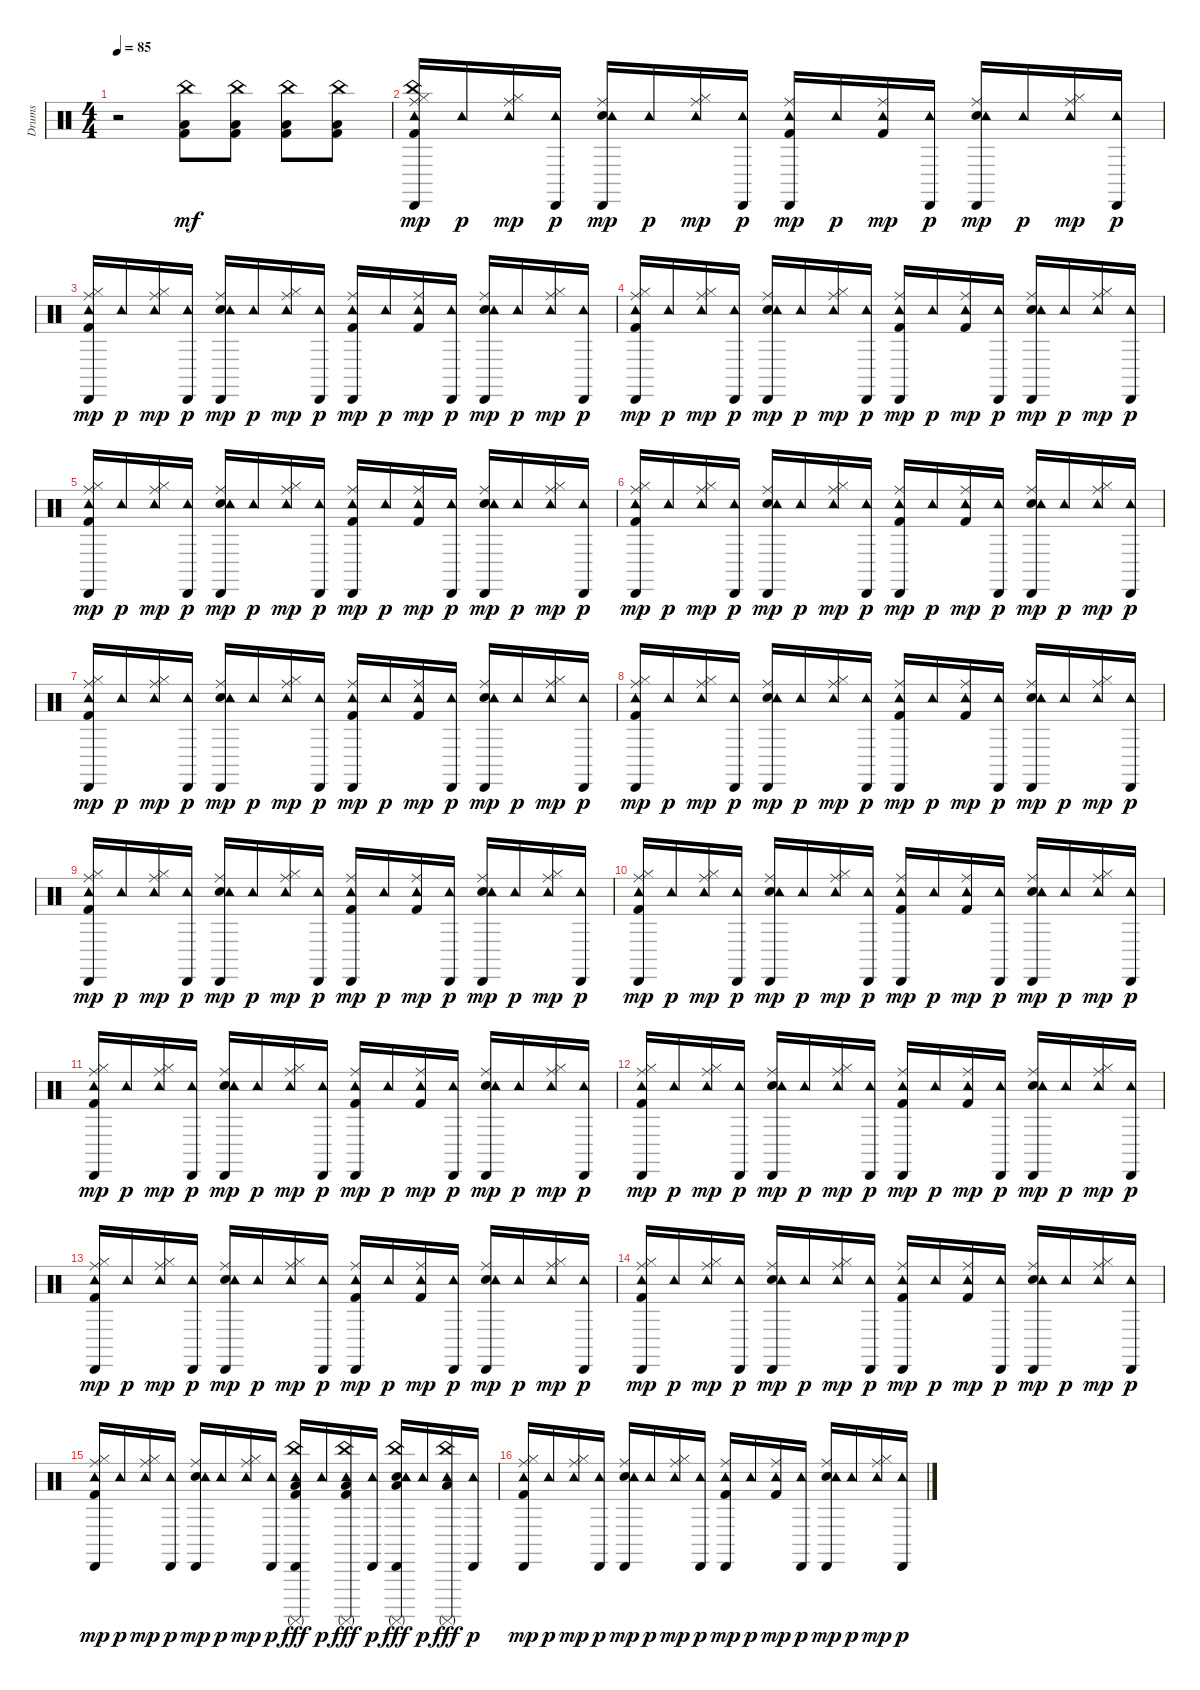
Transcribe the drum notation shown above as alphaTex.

\track ("Drums" "Drums") {instrument percussion}
\staff {score}
\articulation defaults
\ts (4 4)
\tempo 85
\clef neutral
\ks c
r.2{dy mf} ("Kick (hit) 2" "Low Tom (hit)" "China (hit)").8 ("Kick (hit) 2" "Low Tom (hit)" "China (hit)").8 ("Kick (hit) 2" "Low Tom (hit)" "China (hit)").8 ("Kick (hit) 2" "Low Tom (hit)" "China (hit)").8 |
("Kick (hit) 2" "Hi-Hat (closed)" "Ride (middle)" "China (hit)" "Tambourine (hit)" "Cabasa (hit)").16{dy mp} "Tambourine (hit)".16{dy p} ("Hi-Hat (closed)" "Ride (middle)" "Tambourine (hit)").16{dy mp} ("Cabasa (hit)" "Tambourine (hit)").16{dy p} ("Snare (hit) 2" "Ride (middle)" "Tambourine (hit)" "Cabasa (hit)").16{dy mp} "Tambourine (hit)".16{dy p} ("Hi-Hat (closed)" "Ride (middle)" "Tambourine (hit)").16{dy mp} ("Cabasa (hit)" "Tambourine (hit)").16{dy p} ("Kick (hit) 2" "Ride (middle)" "Tambourine (hit)" "Cabasa (hit)").16{dy mp} "Tambourine (hit)".16{dy p} ("Kick (hit) 2" "Ride (middle)" "Tambourine (hit)").16{dy mp} ("Cabasa (hit)" "Tambourine (hit)").16{dy p} ("Snare (hit) 2" "Ride (middle)" "Tambourine (hit)" "Cabasa (hit)").16{dy mp} "Tambourine (hit)".16{dy p} ("Hi-Hat (closed)" "Ride (middle)" "Tambourine (hit)").16{dy mp} ("Cabasa (hit)" "Tambourine (hit)").16{dy p} |
("Kick (hit) 2" "Hi-Hat (closed)" "Ride (middle)" "Tambourine (hit)" "Cabasa (hit)").16{dy mp} "Tambourine (hit)".16{dy p} ("Hi-Hat (closed)" "Ride (middle)" "Tambourine (hit)").16{dy mp} ("Cabasa (hit)" "Tambourine (hit)").16{dy p} ("Snare (hit) 2" "Ride (middle)" "Tambourine (hit)" "Cabasa (hit)").16{dy mp} "Tambourine (hit)".16{dy p} ("Hi-Hat (closed)" "Ride (middle)" "Tambourine (hit)").16{dy mp} ("Cabasa (hit)" "Tambourine (hit)").16{dy p} ("Kick (hit) 2" "Ride (middle)" "Tambourine (hit)" "Cabasa (hit)").16{dy mp} "Tambourine (hit)".16{dy p} ("Kick (hit) 2" "Ride (middle)" "Tambourine (hit)").16{dy mp} ("Cabasa (hit)" "Tambourine (hit)").16{dy p} ("Snare (hit) 2" "Ride (middle)" "Tambourine (hit)" "Cabasa (hit)").16{dy mp} "Tambourine (hit)".16{dy p} ("Hi-Hat (closed)" "Ride (middle)" "Tambourine (hit)").16{dy mp} ("Cabasa (hit)" "Tambourine (hit)").16{dy p} |
("Kick (hit) 2" "Hi-Hat (closed)" "Ride (middle)" "Tambourine (hit)" "Cabasa (hit)").16{dy mp} "Tambourine (hit)".16{dy p} ("Hi-Hat (closed)" "Ride (middle)" "Tambourine (hit)").16{dy mp} ("Cabasa (hit)" "Tambourine (hit)").16{dy p} ("Snare (hit) 2" "Ride (middle)" "Tambourine (hit)" "Cabasa (hit)").16{dy mp} "Tambourine (hit)".16{dy p} ("Hi-Hat (closed)" "Ride (middle)" "Tambourine (hit)").16{dy mp} ("Cabasa (hit)" "Tambourine (hit)").16{dy p} ("Kick (hit) 2" "Ride (middle)" "Tambourine (hit)" "Cabasa (hit)").16{dy mp} "Tambourine (hit)".16{dy p} ("Kick (hit) 2" "Ride (middle)" "Tambourine (hit)").16{dy mp} ("Cabasa (hit)" "Tambourine (hit)").16{dy p} ("Snare (hit) 2" "Ride (middle)" "Tambourine (hit)" "Cabasa (hit)").16{dy mp} "Tambourine (hit)".16{dy p} ("Hi-Hat (closed)" "Ride (middle)" "Tambourine (hit)").16{dy mp} ("Cabasa (hit)" "Tambourine (hit)").16{dy p} |
("Kick (hit) 2" "Hi-Hat (closed)" "Ride (middle)" "Tambourine (hit)" "Cabasa (hit)").16{dy mp} "Tambourine (hit)".16{dy p} ("Hi-Hat (closed)" "Ride (middle)" "Tambourine (hit)").16{dy mp} ("Cabasa (hit)" "Tambourine (hit)").16{dy p} ("Snare (hit) 2" "Ride (middle)" "Tambourine (hit)" "Cabasa (hit)").16{dy mp} "Tambourine (hit)".16{dy p} ("Hi-Hat (closed)" "Ride (middle)" "Tambourine (hit)").16{dy mp} ("Cabasa (hit)" "Tambourine (hit)").16{dy p} ("Kick (hit) 2" "Ride (middle)" "Tambourine (hit)" "Cabasa (hit)").16{dy mp} "Tambourine (hit)".16{dy p} ("Kick (hit) 2" "Ride (middle)" "Tambourine (hit)").16{dy mp} ("Cabasa (hit)" "Tambourine (hit)").16{dy p} ("Snare (hit) 2" "Ride (middle)" "Tambourine (hit)" "Cabasa (hit)").16{dy mp} "Tambourine (hit)".16{dy p} ("Hi-Hat (closed)" "Ride (middle)" "Tambourine (hit)").16{dy mp} ("Cabasa (hit)" "Tambourine (hit)").16{dy p} |
("Kick (hit) 2" "Hi-Hat (closed)" "Ride (middle)" "Tambourine (hit)" "Cabasa (hit)").16{dy mp} "Tambourine (hit)".16{dy p} ("Hi-Hat (closed)" "Ride (middle)" "Tambourine (hit)").16{dy mp} ("Cabasa (hit)" "Tambourine (hit)").16{dy p} ("Snare (hit) 2" "Ride (middle)" "Tambourine (hit)" "Cabasa (hit)").16{dy mp} "Tambourine (hit)".16{dy p} ("Hi-Hat (closed)" "Ride (middle)" "Tambourine (hit)").16{dy mp} ("Cabasa (hit)" "Tambourine (hit)").16{dy p} ("Kick (hit) 2" "Ride (middle)" "Tambourine (hit)" "Cabasa (hit)").16{dy mp} "Tambourine (hit)".16{dy p} ("Kick (hit) 2" "Ride (middle)" "Tambourine (hit)").16{dy mp} ("Cabasa (hit)" "Tambourine (hit)").16{dy p} ("Snare (hit) 2" "Ride (middle)" "Tambourine (hit)" "Cabasa (hit)").16{dy mp} "Tambourine (hit)".16{dy p} ("Hi-Hat (closed)" "Ride (middle)" "Tambourine (hit)").16{dy mp} ("Cabasa (hit)" "Tambourine (hit)").16{dy p} |
("Kick (hit) 2" "Hi-Hat (closed)" "Ride (middle)" "Tambourine (hit)" "Cabasa (hit)").16{dy mp} "Tambourine (hit)".16{dy p} ("Hi-Hat (closed)" "Ride (middle)" "Tambourine (hit)").16{dy mp} ("Cabasa (hit)" "Tambourine (hit)").16{dy p} ("Snare (hit) 2" "Ride (middle)" "Tambourine (hit)" "Cabasa (hit)").16{dy mp} "Tambourine (hit)".16{dy p} ("Hi-Hat (closed)" "Ride (middle)" "Tambourine (hit)").16{dy mp} ("Cabasa (hit)" "Tambourine (hit)").16{dy p} ("Kick (hit) 2" "Ride (middle)" "Tambourine (hit)" "Cabasa (hit)").16{dy mp} "Tambourine (hit)".16{dy p} ("Kick (hit) 2" "Ride (middle)" "Tambourine (hit)").16{dy mp} ("Cabasa (hit)" "Tambourine (hit)").16{dy p} ("Snare (hit) 2" "Ride (middle)" "Tambourine (hit)" "Cabasa (hit)").16{dy mp} "Tambourine (hit)".16{dy p} ("Hi-Hat (closed)" "Ride (middle)" "Tambourine (hit)").16{dy mp} ("Cabasa (hit)" "Tambourine (hit)").16{dy p} |
("Kick (hit) 2" "Hi-Hat (closed)" "Ride (middle)" "Tambourine (hit)" "Cabasa (hit)").16{dy mp} "Tambourine (hit)".16{dy p} ("Hi-Hat (closed)" "Ride (middle)" "Tambourine (hit)").16{dy mp} ("Cabasa (hit)" "Tambourine (hit)").16{dy p} ("Snare (hit) 2" "Ride (middle)" "Tambourine (hit)" "Cabasa (hit)").16{dy mp} "Tambourine (hit)".16{dy p} ("Hi-Hat (closed)" "Ride (middle)" "Tambourine (hit)").16{dy mp} ("Cabasa (hit)" "Tambourine (hit)").16{dy p} ("Kick (hit) 2" "Ride (middle)" "Tambourine (hit)" "Cabasa (hit)").16{dy mp} "Tambourine (hit)".16{dy p} ("Kick (hit) 2" "Ride (middle)" "Tambourine (hit)").16{dy mp} ("Cabasa (hit)" "Tambourine (hit)").16{dy p} ("Snare (hit) 2" "Ride (middle)" "Tambourine (hit)" "Cabasa (hit)").16{dy mp} "Tambourine (hit)".16{dy p} ("Hi-Hat (closed)" "Ride (middle)" "Tambourine (hit)").16{dy mp} ("Cabasa (hit)" "Tambourine (hit)").16{dy p} |
("Kick (hit) 2" "Hi-Hat (closed)" "Ride (middle)" "Tambourine (hit)" "Cabasa (hit)").16{dy mp} "Tambourine (hit)".16{dy p} ("Hi-Hat (closed)" "Ride (middle)" "Tambourine (hit)").16{dy mp} ("Cabasa (hit)" "Tambourine (hit)").16{dy p} ("Snare (hit) 2" "Ride (middle)" "Tambourine (hit)" "Cabasa (hit)").16{dy mp} "Tambourine (hit)".16{dy p} ("Hi-Hat (closed)" "Ride (middle)" "Tambourine (hit)").16{dy mp} ("Cabasa (hit)" "Tambourine (hit)").16{dy p} ("Kick (hit) 2" "Ride (middle)" "Tambourine (hit)" "Cabasa (hit)").16{dy mp} "Tambourine (hit)".16{dy p} ("Kick (hit) 2" "Ride (middle)" "Tambourine (hit)").16{dy mp} ("Cabasa (hit)" "Tambourine (hit)").16{dy p} ("Snare (hit) 2" "Ride (middle)" "Tambourine (hit)" "Cabasa (hit)").16{dy mp} "Tambourine (hit)".16{dy p} ("Hi-Hat (closed)" "Ride (middle)" "Tambourine (hit)").16{dy mp} ("Cabasa (hit)" "Tambourine (hit)").16{dy p} |
("Kick (hit) 2" "Hi-Hat (closed)" "Ride (middle)" "Tambourine (hit)" "Cabasa (hit)").16{dy mp} "Tambourine (hit)".16{dy p} ("Hi-Hat (closed)" "Ride (middle)" "Tambourine (hit)").16{dy mp} ("Cabasa (hit)" "Tambourine (hit)").16{dy p} ("Snare (hit) 2" "Ride (middle)" "Tambourine (hit)" "Cabasa (hit)").16{dy mp} "Tambourine (hit)".16{dy p} ("Hi-Hat (closed)" "Ride (middle)" "Tambourine (hit)").16{dy mp} ("Cabasa (hit)" "Tambourine (hit)").16{dy p} ("Kick (hit) 2" "Ride (middle)" "Tambourine (hit)" "Cabasa (hit)").16{dy mp} "Tambourine (hit)".16{dy p} ("Kick (hit) 2" "Ride (middle)" "Tambourine (hit)").16{dy mp} ("Cabasa (hit)" "Tambourine (hit)").16{dy p} ("Snare (hit) 2" "Ride (middle)" "Tambourine (hit)" "Cabasa (hit)").16{dy mp} "Tambourine (hit)".16{dy p} ("Hi-Hat (closed)" "Ride (middle)" "Tambourine (hit)").16{dy mp} ("Cabasa (hit)" "Tambourine (hit)").16{dy p} |
("Kick (hit) 2" "Hi-Hat (closed)" "Ride (middle)" "Tambourine (hit)" "Cabasa (hit)").16{dy mp} "Tambourine (hit)".16{dy p} ("Hi-Hat (closed)" "Ride (middle)" "Tambourine (hit)").16{dy mp} ("Cabasa (hit)" "Tambourine (hit)").16{dy p} ("Snare (hit) 2" "Ride (middle)" "Tambourine (hit)" "Cabasa (hit)").16{dy mp} "Tambourine (hit)".16{dy p} ("Hi-Hat (closed)" "Ride (middle)" "Tambourine (hit)").16{dy mp} ("Cabasa (hit)" "Tambourine (hit)").16{dy p} ("Kick (hit) 2" "Ride (middle)" "Tambourine (hit)" "Cabasa (hit)").16{dy mp} "Tambourine (hit)".16{dy p} ("Kick (hit) 2" "Ride (middle)" "Tambourine (hit)").16{dy mp} ("Cabasa (hit)" "Tambourine (hit)").16{dy p} ("Snare (hit) 2" "Ride (middle)" "Tambourine (hit)" "Cabasa (hit)").16{dy mp} "Tambourine (hit)".16{dy p} ("Hi-Hat (closed)" "Ride (middle)" "Tambourine (hit)").16{dy mp} ("Cabasa (hit)" "Tambourine (hit)").16{dy p} |
("Kick (hit) 2" "Hi-Hat (closed)" "Ride (middle)" "Tambourine (hit)" "Cabasa (hit)").16{dy mp} "Tambourine (hit)".16{dy p} ("Hi-Hat (closed)" "Ride (middle)" "Tambourine (hit)").16{dy mp} ("Cabasa (hit)" "Tambourine (hit)").16{dy p} ("Snare (hit) 2" "Ride (middle)" "Tambourine (hit)" "Cabasa (hit)").16{dy mp} "Tambourine (hit)".16{dy p} ("Hi-Hat (closed)" "Ride (middle)" "Tambourine (hit)").16{dy mp} ("Cabasa (hit)" "Tambourine (hit)").16{dy p} ("Kick (hit) 2" "Ride (middle)" "Tambourine (hit)" "Cabasa (hit)").16{dy mp} "Tambourine (hit)".16{dy p} ("Kick (hit) 2" "Ride (middle)" "Tambourine (hit)").16{dy mp} ("Cabasa (hit)" "Tambourine (hit)").16{dy p} ("Snare (hit) 2" "Ride (middle)" "Tambourine (hit)" "Cabasa (hit)").16{dy mp} "Tambourine (hit)".16{dy p} ("Hi-Hat (closed)" "Ride (middle)" "Tambourine (hit)").16{dy mp} ("Cabasa (hit)" "Tambourine (hit)").16{dy p} |
("Kick (hit) 2" "Hi-Hat (closed)" "Ride (middle)" "Tambourine (hit)" "Cabasa (hit)").16{dy mp} "Tambourine (hit)".16{dy p} ("Hi-Hat (closed)" "Ride (middle)" "Tambourine (hit)").16{dy mp} ("Cabasa (hit)" "Tambourine (hit)").16{dy p} ("Snare (hit) 2" "Ride (middle)" "Tambourine (hit)" "Cabasa (hit)").16{dy mp} "Tambourine (hit)".16{dy p} ("Hi-Hat (closed)" "Ride (middle)" "Tambourine (hit)").16{dy mp} ("Cabasa (hit)" "Tambourine (hit)").16{dy p} ("Kick (hit) 2" "Ride (middle)" "Tambourine (hit)" "Cabasa (hit)").16{dy mp} "Tambourine (hit)".16{dy p} ("Kick (hit) 2" "Ride (middle)" "Tambourine (hit)").16{dy mp} ("Cabasa (hit)" "Tambourine (hit)").16{dy p} ("Snare (hit) 2" "Ride (middle)" "Tambourine (hit)" "Cabasa (hit)").16{dy mp} "Tambourine (hit)".16{dy p} ("Hi-Hat (closed)" "Ride (middle)" "Tambourine (hit)").16{dy mp} ("Cabasa (hit)" "Tambourine (hit)").16{dy p} |
("Kick (hit) 2" "Hi-Hat (closed)" "Ride (middle)" "Tambourine (hit)" "Cabasa (hit)").16{dy mp} "Tambourine (hit)".16{dy p} ("Hi-Hat (closed)" "Ride (middle)" "Tambourine (hit)").16{dy mp} ("Cabasa (hit)" "Tambourine (hit)").16{dy p} ("Snare (hit) 2" "Ride (middle)" "Tambourine (hit)" "Cabasa (hit)").16{dy mp} "Tambourine (hit)".16{dy p} ("Hi-Hat (closed)" "Ride (middle)" "Tambourine (hit)").16{dy mp} ("Cabasa (hit)" "Tambourine (hit)").16{dy p} ("Kick (hit) 2" "Ride (middle)" "Tambourine (hit)" "Cabasa (hit)").16{dy mp} "Tambourine (hit)".16{dy p} ("Kick (hit) 2" "Ride (middle)" "Tambourine (hit)").16{dy mp} ("Cabasa (hit)" "Tambourine (hit)").16{dy p} ("Snare (hit) 2" "Ride (middle)" "Tambourine (hit)" "Cabasa (hit)").16{dy mp} "Tambourine (hit)".16{dy p} ("Hi-Hat (closed)" "Ride (middle)" "Tambourine (hit)").16{dy mp} ("Cabasa (hit)" "Tambourine (hit)").16{dy p} |
("Kick (hit) 2" "Hi-Hat (closed)" "Ride (middle)" "Tambourine (hit)" "Cabasa (hit)").16{dy mp} "Tambourine (hit)".16{dy p} ("Hi-Hat (closed)" "Ride (middle)" "Tambourine (hit)").16{dy mp} ("Cabasa (hit)" "Tambourine (hit)").16{dy p} ("Snare (hit) 2" "Ride (middle)" "Tambourine (hit)" "Cabasa (hit)").16{dy mp} "Tambourine (hit)".16{dy p} ("Hi-Hat (closed)" "Ride (middle)" "Tambourine (hit)").16{dy mp} ("Cabasa (hit)" "Tambourine (hit)").16{dy p} ("Kick (hit) 2" "Low Floor Tom (hit)" "China (hit)" "Tambourine (hit)" "Cabasa (hit)" "Surdo (mute)").16{dy fff} "Tambourine (hit)".16{dy p} ("Kick (hit) 2" "Low Floor Tom (hit)" "China (hit)" "Tambourine (hit)" "Surdo (mute)").16{dy fff} ("Cabasa (hit)" "Tambourine (hit)").16{dy p} ("Snare (hit) 2" "Low Floor Tom (hit)" "China (hit)" "Tambourine (hit)" "Cabasa (hit)" "Surdo (mute)").16{dy fff} "Tambourine (hit)".16{dy p} ("Low Floor Tom (hit)" "China (hit)" "Tambourine (hit)" "Surdo (mute)").16{dy fff} ("Cabasa (hit)" "Tambourine (hit)").16{dy p} |
("Kick (hit) 2" "Hi-Hat (closed)" "Ride (middle)" "Tambourine (hit)" "Cabasa (hit)").16{dy mp} "Tambourine (hit)".16{dy p} ("Hi-Hat (closed)" "Ride (middle)" "Tambourine (hit)").16{dy mp} ("Cabasa (hit)" "Tambourine (hit)").16{dy p} ("Snare (hit) 2" "Ride (middle)" "Tambourine (hit)" "Cabasa (hit)").16{dy mp} "Tambourine (hit)".16{dy p} ("Hi-Hat (closed)" "Ride (middle)" "Tambourine (hit)").16{dy mp} ("Cabasa (hit)" "Tambourine (hit)").16{dy p} ("Kick (hit) 2" "Ride (middle)" "Tambourine (hit)" "Cabasa (hit)").16{dy mp} "Tambourine (hit)".16{dy p} ("Kick (hit) 2" "Ride (middle)" "Tambourine (hit)").16{dy mp} ("Cabasa (hit)" "Tambourine (hit)").16{dy p} ("Snare (hit) 2" "Ride (middle)" "Tambourine (hit)" "Cabasa (hit)").16{dy mp} "Tambourine (hit)".16{dy p} ("Hi-Hat (closed)" "Ride (middle)" "Tambourine (hit)").16{dy mp} ("Cabasa (hit)" "Tambourine (hit)").16{dy p}
